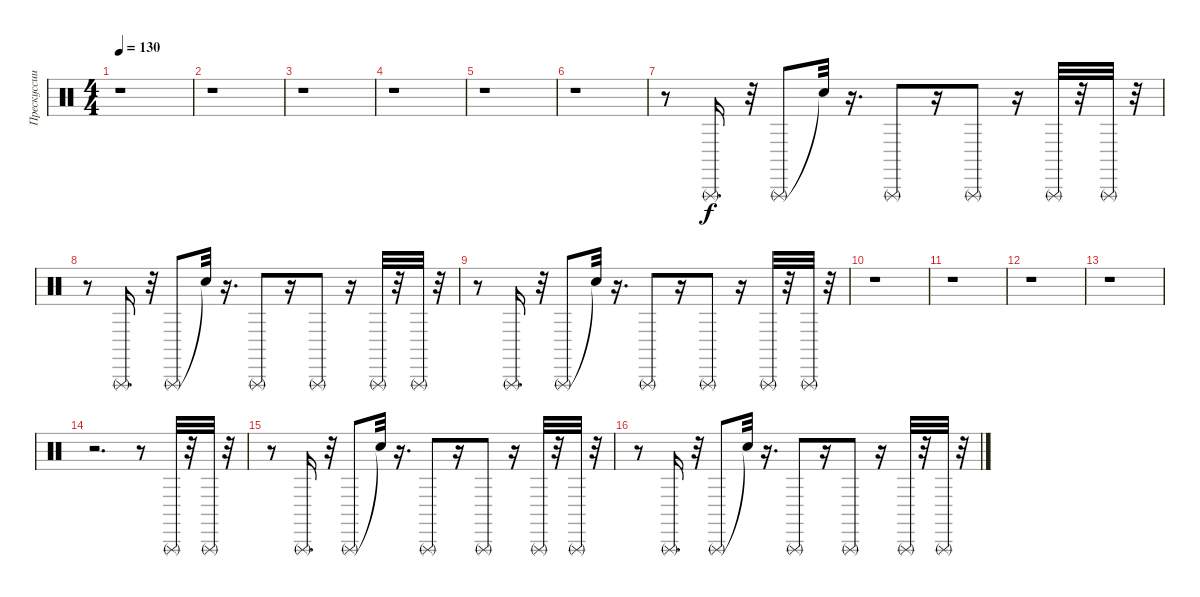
\track ("Прескуссии 1" "Прескуссии") {instrument percussion}
\staff {score}
\articulation defaults
\ts (4 4)
\tempo 130
\clef neutral
\ks c
r.1{dy f} |
r.1 |
r.1 |
r.1 |
r.1 |
r.1 |
r.8 "Triangle (rnute)".16{d} r.32 "Triangle (rnute)".8 "Snare (hit)"{t}.32 r.16{d} "Triangle (rnute)".8 r.16 "Triangle (rnute)".8 r.16 "Triangle (rnute)".32 r.32 "Triangle (rnute)".32 r.32 |
r.8 "Triangle (rnute)".16{d} r.32 "Triangle (rnute)".8 "Snare (hit)"{t}.32 r.16{d} "Triangle (rnute)".8 r.16 "Triangle (rnute)".8 r.16 "Triangle (rnute)".32 r.32 "Triangle (rnute)".32 r.32 |
r.8 "Triangle (rnute)".16{d} r.32 "Triangle (rnute)".8 "Snare (hit)"{t}.32 r.16{d} "Triangle (rnute)".8 r.16 "Triangle (rnute)".8 r.16 "Triangle (rnute)".32 r.32 "Triangle (rnute)".32 r.32 |
r.1 |
r.1 |
r.1 |
r.1 |
r.2{d} r.8 "Triangle (rnute)".32 r.32 "Triangle (rnute)".32 r.32 |
r.8 "Triangle (rnute)".16{d} r.32 "Triangle (rnute)".8 "Snare (hit)"{t}.32 r.16{d} "Triangle (rnute)".8 r.16 "Triangle (rnute)".8 r.16 "Triangle (rnute)".32 r.32 "Triangle (rnute)".32 r.32 |
r.8 "Triangle (rnute)".16{d} r.32 "Triangle (rnute)".8 "Snare (hit)"{t}.32 r.16{d} "Triangle (rnute)".8 r.16 "Triangle (rnute)".8 r.16 "Triangle (rnute)".32 r.32 "Triangle (rnute)".32 r.32
